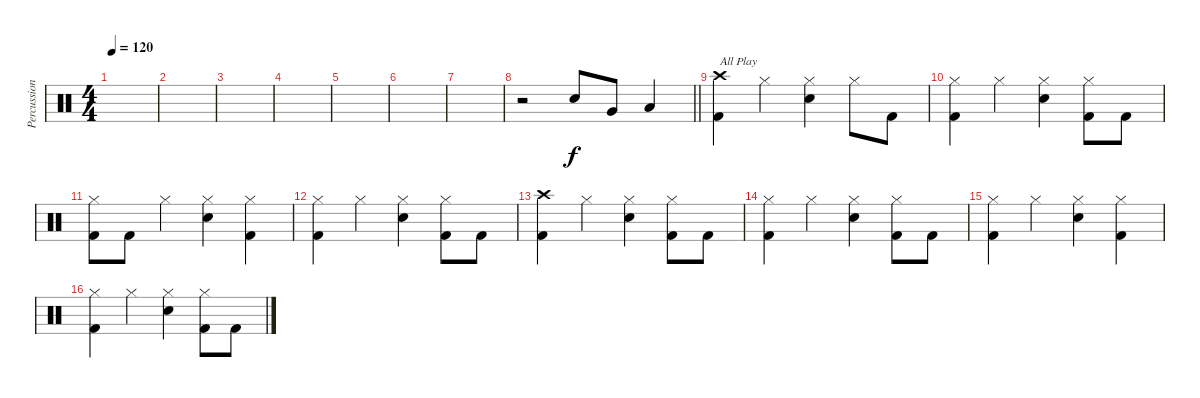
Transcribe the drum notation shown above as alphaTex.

\track ("Percussion" "Percussion") {instrument percussion}
\staff {score}
\articulation defaults
\ts (4 4)
\tempo 120
\clef neutral
\ks c
|
|
|
|
|
|
|
\barLineRight lightlight
r.2 "Snare (hit) 2".8 "Very Low Tom (hit)".8 "Low Floor Tom (hit)".4 |
("Kick (hit) 2" "Crash high (hit)").4{txt "All Play"} "Hi-Hat (closed)".4 ("Snare (hit) 2" "Hi-Hat (closed)").4 "Hi-Hat (closed)".8 "Kick (hit) 2".8 |
("Kick (hit) 2" "Hi-Hat (closed)").4 "Hi-Hat (closed)".4 ("Snare (hit) 2" "Hi-Hat (closed)").4 ("Kick (hit) 2" "Hi-Hat (closed)").8 "Kick (hit) 2".8 |
("Kick (hit) 2" "Hi-Hat (closed)").8 "Kick (hit) 2".8 "Hi-Hat (closed)".4 ("Snare (hit) 2" "Hi-Hat (closed)").4 ("Kick (hit) 2" "Hi-Hat (closed)").4 |
("Kick (hit) 2" "Hi-Hat (closed)").4 "Hi-Hat (closed)".4 ("Snare (hit) 2" "Hi-Hat (closed)").4 ("Kick (hit) 2" "Hi-Hat (closed)").8 "Kick (hit) 2".8 |
("Kick (hit) 2" "Crash high (hit)").4 "Hi-Hat (closed)".4 ("Snare (hit) 2" "Hi-Hat (closed)").4 ("Kick (hit) 2" "Hi-Hat (closed)").8 "Kick (hit) 2".8 |
("Kick (hit) 2" "Hi-Hat (closed)").4 "Hi-Hat (closed)".4 ("Snare (hit) 2" "Hi-Hat (closed)").4 ("Kick (hit) 2" "Hi-Hat (closed)").8 "Kick (hit) 2".8 |
("Kick (hit) 2" "Hi-Hat (closed)").4 "Hi-Hat (closed)".4 ("Snare (hit) 2" "Hi-Hat (closed)").4 ("Kick (hit) 2" "Hi-Hat (closed)").4 |
("Kick (hit) 2" "Hi-Hat (closed)").4 "Hi-Hat (closed)".4 ("Snare (hit) 2" "Hi-Hat (closed)").4 ("Kick (hit) 2" "Hi-Hat (closed)").8 "Kick (hit) 2".8
